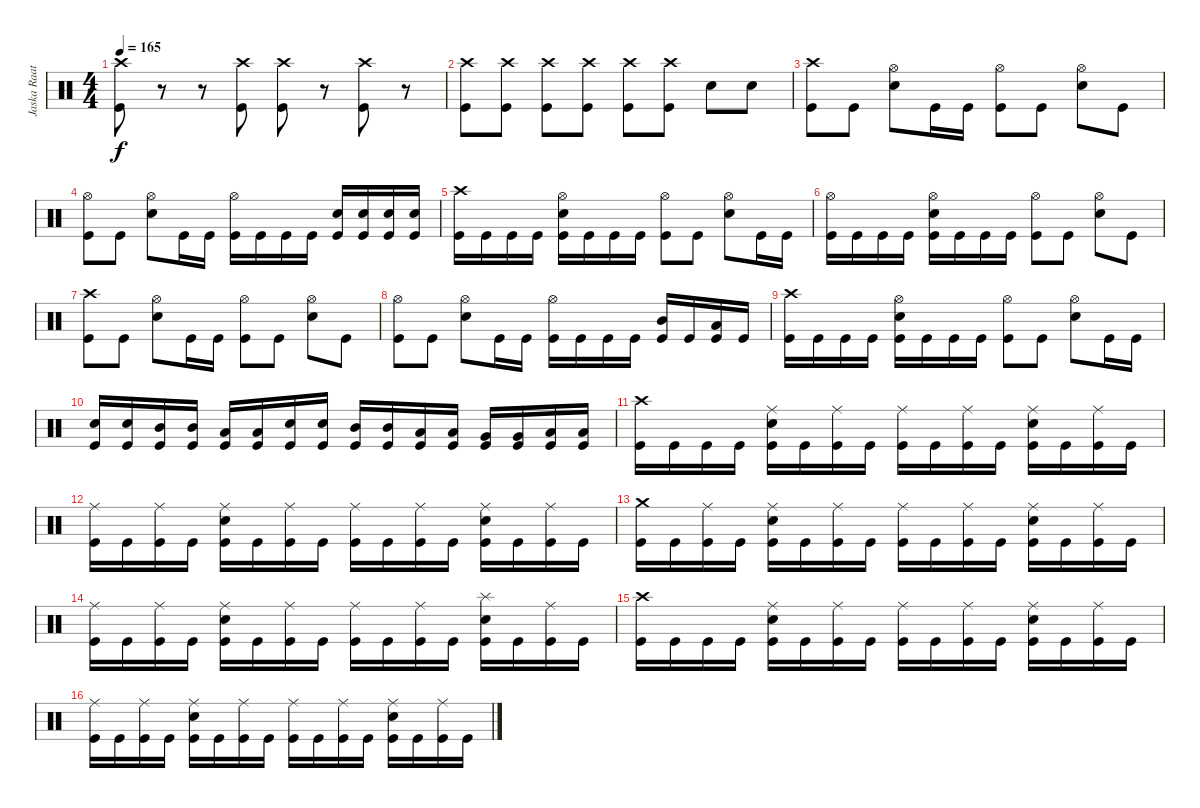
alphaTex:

\track ("Jaska Raatikainen" "Jaska Raat") {instrument percussion}
\staff {score}
\articulation defaults
\ts (4 4)
\tempo 165
\clef neutral
\ks c
("Crash high (hit)" "Kick (hit)").8{dy f} r.8 r.8 ("Crash high (hit)" "Kick (hit)").8 ("Crash high (hit)" "Kick (hit)").8 r.8 ("Crash high (hit)" "Kick (hit)").8 r.8 |
("Crash high (hit)" "Kick (hit)").8 ("Crash high (hit)" "Kick (hit)").8 ("Crash high (hit)" "Kick (hit)").8 ("Crash high (hit)" "Kick (hit)").8 ("Crash high (hit)" "Kick (hit)").8 ("Crash high (hit)" "Kick (hit)").8 "Electric Snare (hit)".8 "Electric Snare (hit)".8 |
("Crash high (hit)" "Kick (hit)").8 "Kick (hit)".8 ("Hi-Hat (open)" "Electric Snare (hit)").8 "Kick (hit)".16 "Kick (hit)".16 ("Hi-Hat (open)" "Kick (hit)").8 "Kick (hit)".8 ("Hi-Hat (open)" "Electric Snare (hit)").8 "Kick (hit)".8 |
("Hi-Hat (open)" "Kick (hit)").8 "Kick (hit)".8 ("Hi-Hat (open)" "Electric Snare (hit)").8 "Kick (hit)".16 "Kick (hit)".16 ("Hi-Hat (open)" "Kick (hit)").16 "Kick (hit)".16 "Kick (hit)".16 "Kick (hit)".16 ("Electric Snare (hit)" "Kick (hit)").16 ("Electric Snare (hit)" "Kick (hit)").16 ("Electric Snare (hit)" "Kick (hit)").16 ("Electric Snare (hit)" "Kick (hit)").16 |
("Crash high (hit)" "Kick (hit)").16 "Kick (hit)".16 "Kick (hit)".16 "Kick (hit)".16 ("Hi-Hat (open)" "Electric Snare (hit)" "Kick (hit)").16 "Kick (hit)".16 "Kick (hit)".16 "Kick (hit)".16 ("Hi-Hat (open)" "Kick (hit)").8 "Kick (hit)".8 ("Hi-Hat (open)" "Electric Snare (hit)").8 "Kick (hit)".16 "Kick (hit)".16 |
("Hi-Hat (open)" "Kick (hit)").16 "Kick (hit)".16 "Kick (hit)".16 "Kick (hit)".16 ("Hi-Hat (open)" "Electric Snare (hit)" "Kick (hit)").16 "Kick (hit)".16 "Kick (hit)".16 "Kick (hit)".16 ("Hi-Hat (open)" "Kick (hit)").8 "Kick (hit)".8 ("Hi-Hat (open)" "Electric Snare (hit)").8 "Kick (hit)".8 |
("Crash high (hit)" "Kick (hit)").8 "Kick (hit)".8 ("Hi-Hat (open)" "Electric Snare (hit)").8 "Kick (hit)".16 "Kick (hit)".16 ("Hi-Hat (open)" "Kick (hit)").8 "Kick (hit)".8 ("Hi-Hat (open)" "Electric Snare (hit)").8 "Kick (hit)".8 |
("Hi-Hat (open)" "Kick (hit)").8 "Kick (hit)".8 ("Hi-Hat (open)" "Electric Snare (hit)").8 "Kick (hit)".16 "Kick (hit)".16 ("Hi-Hat (open)" "Kick (hit)").16 "Kick (hit)".16 "Kick (hit)".16 "Kick (hit)".16 ("Mid Tom (hit)" "Kick (hit)").16 "Kick (hit)".16 ("Low Tom (hit)" "Kick (hit)").16 "Kick (hit)".16 |
("Crash high (hit)" "Kick (hit)").16 "Kick (hit)".16 "Kick (hit)".16 "Kick (hit)".16 ("Hi-Hat (open)" "Electric Snare (hit)" "Kick (hit)").16 "Kick (hit)".16 "Kick (hit)".16 "Kick (hit)".16 ("Hi-Hat (open)" "Kick (hit)").8 "Kick (hit)".8 ("Hi-Hat (open)" "Electric Snare (hit)").8 "Kick (hit)".16 "Kick (hit)".16 |
("Electric Snare (hit)" "Kick (hit)").16 ("Electric Snare (hit)" "Kick (hit)").16 ("Mid Tom (hit)" "Kick (hit)").16 ("Mid Tom (hit)" "Kick (hit)").16 ("Low Tom (hit)" "Kick (hit)").16 ("Low Tom (hit)" "Kick (hit)").16 ("Electric Snare (hit)" "Kick (hit)").16 ("Electric Snare (hit)" "Kick (hit)").16 ("Mid Tom (hit)" "Kick (hit)").16 ("Mid Tom (hit)" "Kick (hit)").16 ("Low Tom (hit)" "Kick (hit)").16 ("Low Tom (hit)" "Kick (hit)").16 ("Very Low Tom (hit)" "Kick (hit)").16 ("Very Low Tom (hit)" "Kick (hit)").16 ("Low Floor Tom (hit)" "Kick (hit)").16 ("Low Floor Tom (hit)" "Kick (hit)").16 |
("Crash high (hit)" "Kick (hit)").16 "Kick (hit)".16 "Kick (hit)".16 "Kick (hit)".16 ("Ride (middle)" "Electric Snare (hit)" "Kick (hit)").16 "Kick (hit)".16 ("Ride (middle)" "Kick (hit)").16 "Kick (hit)".16 ("Ride (middle)" "Kick (hit)").16 "Kick (hit)".16 ("Ride (middle)" "Kick (hit)").16 "Kick (hit)".16 ("Ride (middle)" "Electric Snare (hit)" "Kick (hit)").16 "Kick (hit)".16 ("Ride (middle)" "Kick (hit)").16 "Kick (hit)".16 |
("Ride (middle)" "Kick (hit)").16 "Kick (hit)".16 ("Ride (middle)" "Kick (hit)").16 "Kick (hit)".16 ("Ride (middle)" "Electric Snare (hit)" "Kick (hit)").16 "Kick (hit)".16 ("Ride (middle)" "Kick (hit)").16 "Kick (hit)".16 ("Ride (middle)" "Kick (hit)").16 "Kick (hit)".16 ("Ride (middle)" "Kick (hit)").16 "Kick (hit)".16 ("Ride (middle)" "Electric Snare (hit)" "Kick (hit)").16 "Kick (hit)".16 ("Ride (middle)" "Kick (hit)").16 "Kick (hit)".16 |
("Crash medium (hit)" "Kick (hit)").16 "Kick (hit)".16 ("Ride (middle)" "Kick (hit)").16 "Kick (hit)".16 ("Ride (middle)" "Electric Snare (hit)" "Kick (hit)").16 "Kick (hit)".16 ("Ride (middle)" "Kick (hit)").16 "Kick (hit)".16 ("Ride (middle)" "Kick (hit)").16 "Kick (hit)".16 ("Ride (middle)" "Kick (hit)").16 "Kick (hit)".16 ("Ride (middle)" "Electric Snare (hit)" "Kick (hit)").16 "Kick (hit)".16 ("Ride (middle)" "Kick (hit)").16 "Kick (hit)".16 |
("Ride (middle)" "Kick (hit)").16 "Kick (hit)".16 ("Ride (middle)" "Kick (hit)").16 "Kick (hit)".16 ("Ride (middle)" "Electric Snare (hit)" "Kick (hit)").16 "Kick (hit)".16 ("Ride (middle)" "Kick (hit)").16 "Kick (hit)".16 ("Ride (middle)" "Kick (hit)").16 "Kick (hit)".16 ("Ride (middle)" "Kick (hit)").16 "Kick (hit)".16 ("Splash (hit)" "Electric Snare (hit)" "Kick (hit)").16 "Kick (hit)".16 ("Ride (middle)" "Kick (hit)").16 "Kick (hit)".16 |
("Crash high (hit)" "Kick (hit)").16 "Kick (hit)".16 "Kick (hit)".16 "Kick (hit)".16 ("Ride (middle)" "Electric Snare (hit)" "Kick (hit)").16 "Kick (hit)".16 ("Ride (middle)" "Kick (hit)").16 "Kick (hit)".16 ("Ride (middle)" "Kick (hit)").16 "Kick (hit)".16 ("Ride (middle)" "Kick (hit)").16 "Kick (hit)".16 ("Ride (middle)" "Electric Snare (hit)" "Kick (hit)").16 "Kick (hit)".16 ("Ride (middle)" "Kick (hit)").16 "Kick (hit)".16 |
("Ride (middle)" "Kick (hit)").16 "Kick (hit)".16 ("Ride (middle)" "Kick (hit)").16 "Kick (hit)".16 ("Ride (middle)" "Electric Snare (hit)" "Kick (hit)").16 "Kick (hit)".16 ("Ride (middle)" "Kick (hit)").16 "Kick (hit)".16 ("Ride (middle)" "Kick (hit)").16 "Kick (hit)".16 ("Ride (middle)" "Kick (hit)").16 "Kick (hit)".16 ("Ride (middle)" "Electric Snare (hit)" "Kick (hit)").16 "Kick (hit)".16 ("Ride (middle)" "Kick (hit)").16 "Kick (hit)".16
